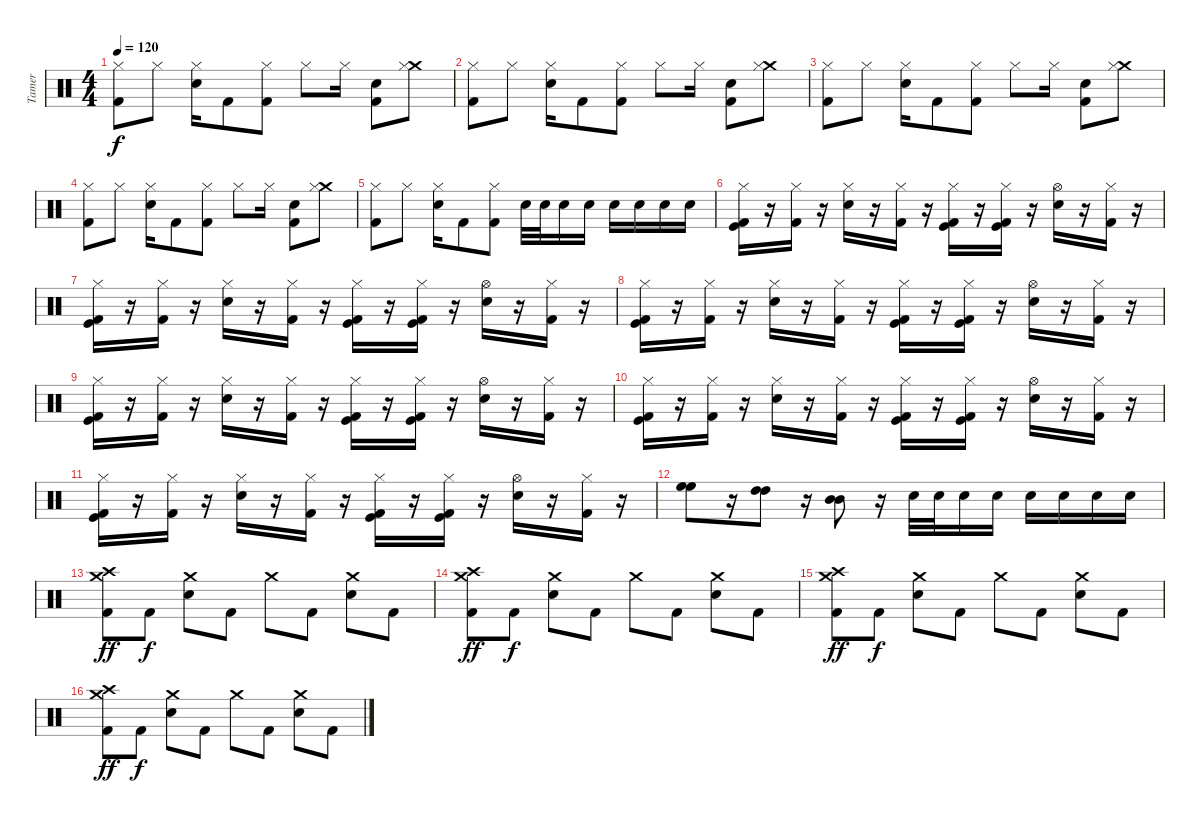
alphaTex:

\track ("Tamer" "Tamer") {instrument percussion}
\staff {score}
\articulation defaults
\ts (4 4)
\tempo 120
\clef neutral
\ks c
("Hi-Hat (closed)" "Kick (hit) 2").8{dy f} "Hi-Hat (closed)".8 ("Electric Snare (hit)" "Hi-Hat (closed)").16 "Kick (hit) 2".8 ("Hi-Hat (closed)" "Kick (hit) 2").8 "Hi-Hat (closed)".8 "Hi-Hat (closed)".16 ("Electric Snare (hit)" "Kick (hit) 2").8 ("Crash medium (hit)" "Hi-Hat (closed)").8 |
("Hi-Hat (closed)" "Kick (hit) 2").8 "Hi-Hat (closed)".8 ("Electric Snare (hit)" "Hi-Hat (closed)").16 "Kick (hit) 2".8 ("Hi-Hat (closed)" "Kick (hit) 2").8 "Hi-Hat (closed)".8 "Hi-Hat (closed)".16 ("Electric Snare (hit)" "Kick (hit) 2").8 ("Crash medium (hit)" "Hi-Hat (closed)").8 |
("Hi-Hat (closed)" "Kick (hit) 2").8 "Hi-Hat (closed)".8 ("Electric Snare (hit)" "Hi-Hat (closed)").16 "Kick (hit) 2".8 ("Hi-Hat (closed)" "Kick (hit) 2").8 "Hi-Hat (closed)".8 "Hi-Hat (closed)".16 ("Electric Snare (hit)" "Kick (hit) 2").8 ("Crash medium (hit)" "Hi-Hat (closed)").8 |
("Hi-Hat (closed)" "Kick (hit) 2").8 "Hi-Hat (closed)".8 ("Electric Snare (hit)" "Hi-Hat (closed)").16 "Kick (hit) 2".8 ("Hi-Hat (closed)" "Kick (hit) 2").8 "Hi-Hat (closed)".8 "Hi-Hat (closed)".16 ("Electric Snare (hit)" "Kick (hit) 2").8 ("Crash medium (hit)" "Hi-Hat (closed)").8 |
("Hi-Hat (closed)" "Kick (hit) 2").8 "Hi-Hat (closed)".8 ("Electric Snare (hit)" "Hi-Hat (closed)").16 "Kick (hit) 2".8 ("Hi-Hat (closed)" "Kick (hit) 2").8 "Electric Snare (hit)".32 "Electric Snare (hit)".32 "Electric Snare (hit)".16 "Electric Snare (hit)".16 "Electric Snare (hit)".16 "Electric Snare (hit)".16 "Electric Snare (hit)".16 "Electric Snare (hit)".16 |
("Hi-Hat (closed)" "Kick (hit)" "Kick (hit) 2").16 r.16 ("Hi-Hat (closed)" "Kick (hit) 2").16 r.16 ("Hi-Hat (closed)" "Electric Snare (hit)").16 r.16 ("Hi-Hat (closed)" "Kick (hit) 2").16 r.16 ("Hi-Hat (closed)" "Kick (hit)" "Kick (hit) 2").16 r.16 ("Kick (hit)" "Hi-Hat (closed)" "Kick (hit) 2").16 r.16 ("Hi-Hat (open)" "Electric Snare (hit)").16 r.16 ("Hi-Hat (closed)" "Kick (hit) 2").16 r.16 |
("Hi-Hat (closed)" "Kick (hit)" "Kick (hit) 2").16 r.16 ("Hi-Hat (closed)" "Kick (hit) 2").16 r.16 ("Hi-Hat (closed)" "Electric Snare (hit)").16 r.16 ("Hi-Hat (closed)" "Kick (hit) 2").16 r.16 ("Hi-Hat (closed)" "Kick (hit)" "Kick (hit) 2").16 r.16 ("Kick (hit)" "Hi-Hat (closed)" "Kick (hit) 2").16 r.16 ("Hi-Hat (open)" "Electric Snare (hit)").16 r.16 ("Hi-Hat (closed)" "Kick (hit) 2").16 r.16 |
("Hi-Hat (closed)" "Kick (hit)" "Kick (hit) 2").16 r.16 ("Hi-Hat (closed)" "Kick (hit) 2").16 r.16 ("Hi-Hat (closed)" "Electric Snare (hit)").16 r.16 ("Hi-Hat (closed)" "Kick (hit) 2").16 r.16 ("Hi-Hat (closed)" "Kick (hit)" "Kick (hit) 2").16 r.16 ("Kick (hit)" "Hi-Hat (closed)" "Kick (hit) 2").16 r.16 ("Hi-Hat (open)" "Electric Snare (hit)").16 r.16 ("Hi-Hat (closed)" "Kick (hit) 2").16 r.16 |
("Hi-Hat (closed)" "Kick (hit)" "Kick (hit) 2").16 r.16 ("Hi-Hat (closed)" "Kick (hit) 2").16 r.16 ("Hi-Hat (closed)" "Electric Snare (hit)").16 r.16 ("Hi-Hat (closed)" "Kick (hit) 2").16 r.16 ("Hi-Hat (closed)" "Kick (hit)" "Kick (hit) 2").16 r.16 ("Kick (hit)" "Hi-Hat (closed)" "Kick (hit) 2").16 r.16 ("Hi-Hat (open)" "Electric Snare (hit)").16 r.16 ("Hi-Hat (closed)" "Kick (hit) 2").16 r.16 |
("Hi-Hat (closed)" "Kick (hit)" "Kick (hit) 2").16 r.16 ("Hi-Hat (closed)" "Kick (hit) 2").16 r.16 ("Hi-Hat (closed)" "Electric Snare (hit)").16 r.16 ("Hi-Hat (closed)" "Kick (hit) 2").16 r.16 ("Hi-Hat (closed)" "Kick (hit)" "Kick (hit) 2").16 r.16 ("Kick (hit)" "Hi-Hat (closed)" "Kick (hit) 2").16 r.16 ("Hi-Hat (open)" "Electric Snare (hit)").16 r.16 ("Hi-Hat (closed)" "Kick (hit) 2").16 r.16 |
("Hi-Hat (closed)" "Kick (hit)" "Kick (hit) 2").16 r.16 ("Hi-Hat (closed)" "Kick (hit) 2").16 r.16 ("Hi-Hat (closed)" "Electric Snare (hit)").16 r.16 ("Hi-Hat (closed)" "Kick (hit) 2").16 r.16 ("Hi-Hat (closed)" "Kick (hit)" "Kick (hit) 2").16 r.16 ("Kick (hit)" "Hi-Hat (closed)" "Kick (hit) 2").16 r.16 ("Hi-Hat (open)" "Electric Snare (hit)").16 r.16 ("Hi-Hat (closed)" "Kick (hit) 2").16 r.16 |
("High Floor Tom (hit)" "High Floor Tom (hit)").8 r.16 ("High Tom (hit)" "High Tom (hit)").8 r.16 ("Mid Tom (hit)" "Mid Tom (hit)").8 r.16 "Electric Snare (hit)".32 "Electric Snare (hit)".32 "Electric Snare (hit)".16 "Electric Snare (hit)".16 "Electric Snare (hit)".16 "Electric Snare (hit)".16 "Electric Snare (hit)".16 "Electric Snare (hit)".16 |
("Crash high (hit)" "Crash medium (hit)" "Kick (hit) 2").8{dy ff} "Kick (hit) 2".8{dy f} ("Crash medium (hit)" "Electric Snare (hit)").8 "Kick (hit) 2".8 "Crash medium (hit)".8 "Kick (hit) 2".8 ("Crash medium (hit)" "Electric Snare (hit)").8 "Kick (hit) 2".8 |
("Crash high (hit)" "Crash medium (hit)" "Kick (hit) 2").8{dy ff} "Kick (hit) 2".8{dy f} ("Crash medium (hit)" "Electric Snare (hit)").8 "Kick (hit) 2".8 "Crash medium (hit)".8 "Kick (hit) 2".8 ("Crash medium (hit)" "Electric Snare (hit)").8 "Kick (hit) 2".8 |
("Crash high (hit)" "Crash medium (hit)" "Kick (hit) 2").8{dy ff} "Kick (hit) 2".8{dy f} ("Crash medium (hit)" "Electric Snare (hit)").8 "Kick (hit) 2".8 "Crash medium (hit)".8 "Kick (hit) 2".8 ("Crash medium (hit)" "Electric Snare (hit)").8 "Kick (hit) 2".8 |
("Crash high (hit)" "Crash medium (hit)" "Kick (hit) 2").8{dy ff} "Kick (hit) 2".8{dy f} ("Crash medium (hit)" "Electric Snare (hit)").8 "Kick (hit) 2".8 "Crash medium (hit)".8 "Kick (hit) 2".8 ("Crash medium (hit)" "Electric Snare (hit)").8 "Kick (hit) 2".8
